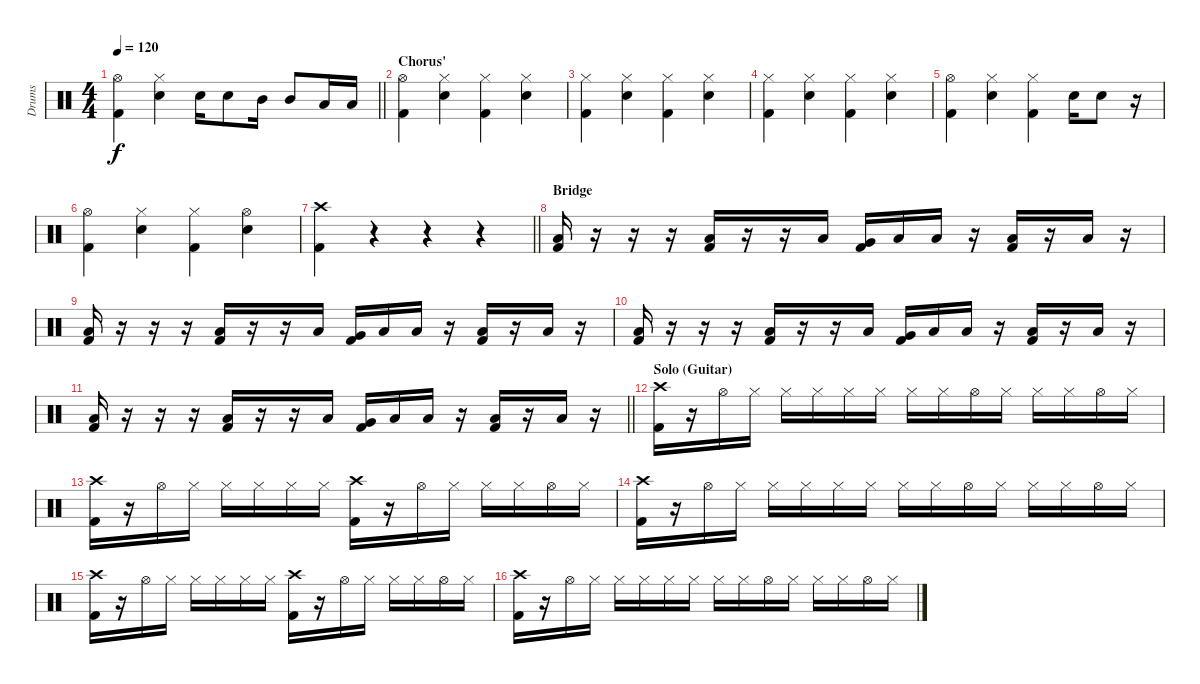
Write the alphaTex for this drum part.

\track ("Drums" "Drums") {instrument percussion}
\staff {score}
\articulation defaults
\ts (4 4)
\tempo 120
\clef neutral
\barLineRight lightlight
\ks c
("Hi-Hat (open)" "Kick (hit) 2").4{dy f} ("Hi-Hat (closed)" "Snare (hit) 2").4 "Snare (hit) 2".16 "Snare (hit) 2".8 "Mid Tom (hit)".16 "Mid Tom (hit)".8 "Low Tom (hit)".16 "Low Tom (hit)".16 |
\section ("" "Chorus'")
("Hi-Hat (open)" "Kick (hit) 2").4 ("Hi-Hat (closed)" "Snare (hit) 2").4 ("Hi-Hat (closed)" "Kick (hit) 2").4 ("Hi-Hat (closed)" "Snare (hit) 2").4 |
("Hi-Hat (closed)" "Kick (hit) 2").4 ("Hi-Hat (closed)" "Snare (hit) 2").4 ("Hi-Hat (closed)" "Kick (hit) 2").4 ("Hi-Hat (closed)" "Snare (hit) 2").4 |
("Hi-Hat (closed)" "Kick (hit) 2").4 ("Hi-Hat (closed)" "Snare (hit) 2").4 ("Hi-Hat (closed)" "Kick (hit) 2").4 ("Hi-Hat (closed)" "Snare (hit) 2").4 |
("Hi-Hat (open)" "Kick (hit) 2").4 ("Hi-Hat (closed)" "Snare (hit) 2").4 ("Hi-Hat (closed)" "Kick (hit) 2").4 "Snare (hit) 2".16 "Snare (hit) 2".8 r.16 |
("Hi-Hat (open)" "Kick (hit) 2").4 ("Hi-Hat (closed)" "Snare (hit) 2").4 ("Hi-Hat (closed)" "Kick (hit) 2").4 ("Hi-Hat (open)" "Snare (hit) 2").4 |
\barLineRight lightlight
("Crash high (hit)" "Kick (hit) 2").4 r.4 r.4 r.4 |
\section ("" "Bridge")
("Low Floor Tom (hit)" "Kick (hit) 2").16 r.16 r.16 r.16 ("Low Floor Tom (hit)" "Kick (hit) 2").16 r.16 r.16 "Low Floor Tom (hit)".16 ("Very Low Tom (hit)" "Kick (hit) 2").16 "Low Floor Tom (hit)".16 "Low Floor Tom (hit)".16 r.16 ("Low Floor Tom (hit)" "Kick (hit) 2").16 r.16 "Low Floor Tom (hit)".16 r.16 |
("Low Floor Tom (hit)" "Kick (hit) 2").16 r.16 r.16 r.16 ("Low Floor Tom (hit)" "Kick (hit) 2").16 r.16 r.16 "Low Floor Tom (hit)".16 ("Very Low Tom (hit)" "Kick (hit) 2").16 "Low Floor Tom (hit)".16 "Low Floor Tom (hit)".16 r.16 ("Low Floor Tom (hit)" "Kick (hit) 2").16 r.16 "Low Floor Tom (hit)".16 r.16 |
("Low Floor Tom (hit)" "Kick (hit) 2").16 r.16 r.16 r.16 ("Low Floor Tom (hit)" "Kick (hit) 2").16 r.16 r.16 "Low Floor Tom (hit)".16 ("Very Low Tom (hit)" "Kick (hit) 2").16 "Low Floor Tom (hit)".16 "Low Floor Tom (hit)".16 r.16 ("Low Floor Tom (hit)" "Kick (hit) 2").16 r.16 "Low Floor Tom (hit)".16 r.16 |
\barLineRight lightlight
("Low Floor Tom (hit)" "Kick (hit) 2").16 r.16 r.16 r.16 ("Low Floor Tom (hit)" "Kick (hit) 2").16 r.16 r.16 "Low Floor Tom (hit)".16 ("Very Low Tom (hit)" "Kick (hit) 2").16 "Low Floor Tom (hit)".16 "Low Floor Tom (hit)".16 r.16 ("Low Floor Tom (hit)" "Kick (hit) 2").16 r.16 "Low Floor Tom (hit)".16 r.16 |
\section ("" "Solo (Guitar)")
("Crash high (hit)" "Kick (hit) 2").16{volume 9} r.16 "Hi-Hat (open)".16 "Hi-Hat (closed)".16 "Hi-Hat (closed)".16 "Hi-Hat (closed)".16 "Hi-Hat (closed)".16 "Hi-Hat (closed)".16 "Hi-Hat (closed)".16 "Hi-Hat (closed)".16 "Hi-Hat (open)".16 "Hi-Hat (closed)".16 "Hi-Hat (closed)".16 "Hi-Hat (closed)".16 "Hi-Hat (open)".16 "Hi-Hat (closed)".16 |
("Crash high (hit)" "Kick (hit) 2").16 r.16 "Hi-Hat (open)".16 "Hi-Hat (closed)".16 "Hi-Hat (closed)".16 "Hi-Hat (closed)".16 "Hi-Hat (closed)".16 "Hi-Hat (closed)".16 ("Crash high (hit)" "Kick (hit) 2").16 r.16 "Hi-Hat (open)".16 "Hi-Hat (closed)".16 "Hi-Hat (closed)".16 "Hi-Hat (closed)".16 "Hi-Hat (open)".16 "Hi-Hat (closed)".16 |
("Crash high (hit)" "Kick (hit) 2").16 r.16 "Hi-Hat (open)".16 "Hi-Hat (closed)".16 "Hi-Hat (closed)".16 "Hi-Hat (closed)".16 "Hi-Hat (closed)".16 "Hi-Hat (closed)".16 "Hi-Hat (closed)".16 "Hi-Hat (closed)".16 "Hi-Hat (open)".16 "Hi-Hat (closed)".16 "Hi-Hat (closed)".16 "Hi-Hat (closed)".16 "Hi-Hat (open)".16 "Hi-Hat (closed)".16 |
("Crash high (hit)" "Kick (hit) 2").16 r.16 "Hi-Hat (open)".16 "Hi-Hat (closed)".16 "Hi-Hat (closed)".16 "Hi-Hat (closed)".16 "Hi-Hat (closed)".16 "Hi-Hat (closed)".16 ("Crash high (hit)" "Kick (hit) 2").16 r.16 "Hi-Hat (open)".16 "Hi-Hat (closed)".16 "Hi-Hat (closed)".16 "Hi-Hat (closed)".16 "Hi-Hat (open)".16 "Hi-Hat (closed)".16 |
("Crash high (hit)" "Kick (hit) 2").16 r.16 "Hi-Hat (open)".16 "Hi-Hat (closed)".16 "Hi-Hat (closed)".16 "Hi-Hat (closed)".16 "Hi-Hat (closed)".16 "Hi-Hat (closed)".16 "Hi-Hat (closed)".16 "Hi-Hat (closed)".16 "Hi-Hat (open)".16 "Hi-Hat (closed)".16 "Hi-Hat (closed)".16 "Hi-Hat (closed)".16 "Hi-Hat (open)".16 "Hi-Hat (closed)".16
